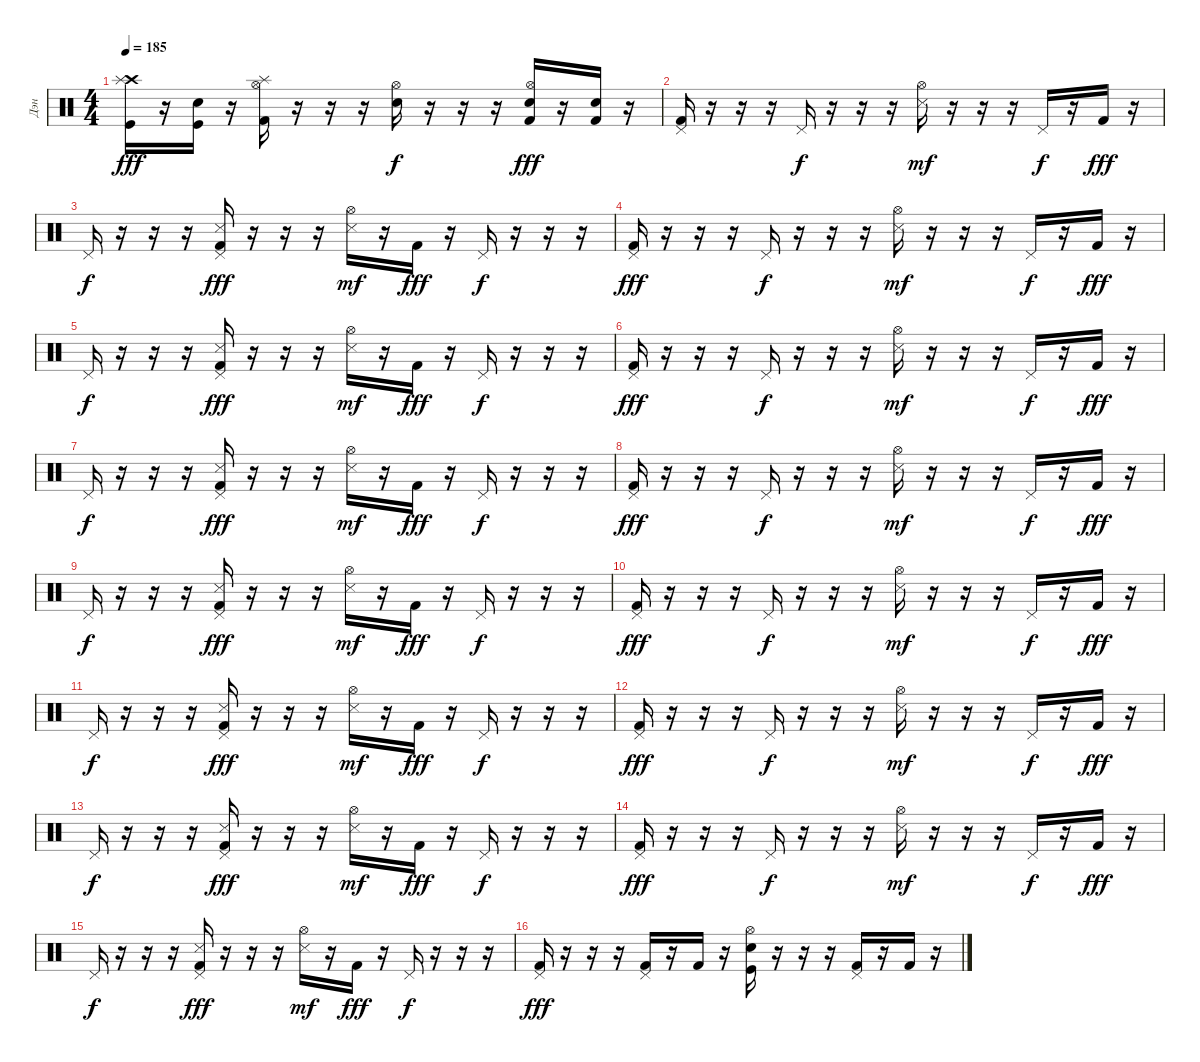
\track ("Дэн" "Дэн") {instrument percussion}
\staff {score}
\articulation defaults
\ts (4 4)
\tempo 185
\clef neutral
\ks c
("Crash high (hit)" "Splash (hit)" "Kick (hit)").16{dy fff} r.16 ("Electric Snare (hit)" "Kick (hit)").16 r.16 ("Hi-Hat (open)" "Splash (hit)" "Kick (hit) 2").16 r.16 r.16 r.16 ("Hi-Hat (open)" "Electric Snare (hit)").16{dy f} r.16 r.16 r.16 ("Hi-Hat (open)" "Electric Snare (hit)" "Kick (hit) 2").16{dy fff} r.16 ("Electric Snare (hit)" "Kick (hit) 2").16 r.16 |
("Pedal Hi-Hat (hit)" "Kick (hit) 2").16 r.16 r.16 r.16 "Pedal Hi-Hat (hit)".16{dy f} r.16 r.16 r.16 ("Hi-Hat (open)" "Snare (side stick) 3").16{dy mf} r.16 r.16 r.16 "Pedal Hi-Hat (hit)".16{dy f} r.16 "Kick (hit) 2".16{dy fff} r.16 |
"Pedal Hi-Hat (hit)".16{dy f} r.16 r.16 r.16 ("Pedal Hi-Hat (hit)" "Metronome (hit)" "Kick (hit) 2").16{dy fff} r.16 r.16 r.16 ("Hi-Hat (open)" "Snare (side stick) 3").16{dy mf} r.16 "Kick (hit) 2".16{dy fff} r.16 "Pedal Hi-Hat (hit)".16{dy f} r.16 r.16 r.16 |
("Pedal Hi-Hat (hit)" "Kick (hit) 2").16{dy fff} r.16 r.16 r.16 "Pedal Hi-Hat (hit)".16{dy f} r.16 r.16 r.16 ("Hi-Hat (open)" "Snare (side stick) 3").16{dy mf} r.16 r.16 r.16 "Pedal Hi-Hat (hit)".16{dy f} r.16 "Kick (hit) 2".16{dy fff} r.16 |
"Pedal Hi-Hat (hit)".16{dy f} r.16 r.16 r.16 ("Pedal Hi-Hat (hit)" "Metronome (hit)" "Kick (hit) 2").16{dy fff} r.16 r.16 r.16 ("Hi-Hat (open)" "Snare (side stick) 3").16{dy mf} r.16 "Kick (hit) 2".16{dy fff} r.16 "Pedal Hi-Hat (hit)".16{dy f} r.16 r.16 r.16 |
("Pedal Hi-Hat (hit)" "Kick (hit) 2").16{dy fff} r.16 r.16 r.16 "Pedal Hi-Hat (hit)".16{dy f} r.16 r.16 r.16 ("Hi-Hat (open)" "Snare (side stick) 3").16{dy mf} r.16 r.16 r.16 "Pedal Hi-Hat (hit)".16{dy f} r.16 "Kick (hit) 2".16{dy fff} r.16 |
"Pedal Hi-Hat (hit)".16{dy f} r.16 r.16 r.16 ("Pedal Hi-Hat (hit)" "Metronome (hit)" "Kick (hit) 2").16{dy fff} r.16 r.16 r.16 ("Hi-Hat (open)" "Snare (side stick) 3").16{dy mf} r.16 "Kick (hit) 2".16{dy fff} r.16 "Pedal Hi-Hat (hit)".16{dy f} r.16 r.16 r.16 |
("Pedal Hi-Hat (hit)" "Kick (hit) 2").16{dy fff} r.16 r.16 r.16 "Pedal Hi-Hat (hit)".16{dy f} r.16 r.16 r.16 ("Hi-Hat (open)" "Snare (side stick) 3").16{dy mf} r.16 r.16 r.16 "Pedal Hi-Hat (hit)".16{dy f} r.16 "Kick (hit) 2".16{dy fff} r.16 |
"Pedal Hi-Hat (hit)".16{dy f} r.16 r.16 r.16 ("Pedal Hi-Hat (hit)" "Metronome (hit)" "Kick (hit) 2").16{dy fff} r.16 r.16 r.16 ("Hi-Hat (open)" "Snare (side stick) 3").16{dy mf} r.16 "Kick (hit) 2".16{dy fff} r.16 "Pedal Hi-Hat (hit)".16{dy f} r.16 r.16 r.16 |
("Pedal Hi-Hat (hit)" "Kick (hit) 2").16{dy fff} r.16 r.16 r.16 "Pedal Hi-Hat (hit)".16{dy f} r.16 r.16 r.16 ("Hi-Hat (open)" "Snare (side stick) 3").16{dy mf} r.16 r.16 r.16 "Pedal Hi-Hat (hit)".16{dy f} r.16 "Kick (hit) 2".16{dy fff} r.16 |
"Pedal Hi-Hat (hit)".16{dy f} r.16 r.16 r.16 ("Pedal Hi-Hat (hit)" "Metronome (hit)" "Kick (hit) 2").16{dy fff} r.16 r.16 r.16 ("Hi-Hat (open)" "Snare (side stick) 3").16{dy mf} r.16 "Kick (hit) 2".16{dy fff} r.16 "Pedal Hi-Hat (hit)".16{dy f} r.16 r.16 r.16 |
("Pedal Hi-Hat (hit)" "Kick (hit) 2").16{dy fff} r.16 r.16 r.16 "Pedal Hi-Hat (hit)".16{dy f} r.16 r.16 r.16 ("Hi-Hat (open)" "Snare (side stick) 3").16{dy mf} r.16 r.16 r.16 "Pedal Hi-Hat (hit)".16{dy f} r.16 "Kick (hit) 2".16{dy fff} r.16 |
"Pedal Hi-Hat (hit)".16{dy f} r.16 r.16 r.16 ("Pedal Hi-Hat (hit)" "Metronome (hit)" "Kick (hit) 2").16{dy fff} r.16 r.16 r.16 ("Hi-Hat (open)" "Snare (side stick) 3").16{dy mf} r.16 "Kick (hit) 2".16{dy fff} r.16 "Pedal Hi-Hat (hit)".16{dy f} r.16 r.16 r.16 |
("Pedal Hi-Hat (hit)" "Kick (hit) 2").16{dy fff} r.16 r.16 r.16 "Pedal Hi-Hat (hit)".16{dy f} r.16 r.16 r.16 ("Hi-Hat (open)" "Snare (side stick) 3").16{dy mf} r.16 r.16 r.16 "Pedal Hi-Hat (hit)".16{dy f} r.16 "Kick (hit) 2".16{dy fff} r.16 |
"Pedal Hi-Hat (hit)".16{dy f} r.16 r.16 r.16 ("Pedal Hi-Hat (hit)" "Metronome (hit)" "Kick (hit) 2").16{dy fff} r.16 r.16 r.16 ("Hi-Hat (open)" "Snare (side stick) 3").16{dy mf} r.16 "Kick (hit) 2".16{dy fff} r.16 "Pedal Hi-Hat (hit)".16{dy f} r.16 r.16 r.16 |
("Pedal Hi-Hat (hit)" "Kick (hit) 2").16{dy fff} r.16 r.16 r.16 ("Pedal Hi-Hat (hit)" "Kick (hit) 2").16 r.16 "Kick (hit) 2".16 r.16 ("Hi-Hat (open)" "Electric Snare (hit)" "Kick (hit)").16 r.16 r.16 r.16 ("Pedal Hi-Hat (hit)" "Kick (hit) 2").16 r.16 "Kick (hit) 2".16 r.16
